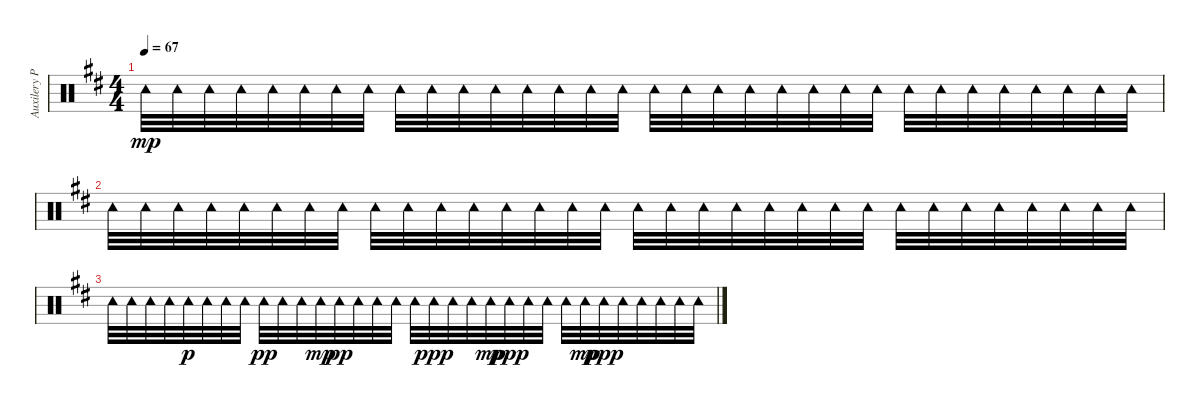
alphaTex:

\track ("Auxilery Percussion" "Auxilery P") {instrument percussion}
\staff {score}
\articulation defaults
\ts (4 4)
\tempo 67
\clef neutral
\ks bminor "Tambourine (hit)".32{dy mp} "Tambourine (hit)".32 "Tambourine (hit)".32 "Tambourine (hit)".32 "Tambourine (hit)".32 "Tambourine (hit)".32 "Tambourine (hit)".32 "Tambourine (hit)".32 "Tambourine (hit)".32 "Tambourine (hit)".32 "Tambourine (hit)".32 "Tambourine (hit)".32 "Tambourine (hit)".32 "Tambourine (hit)".32 "Tambourine (hit)".32 "Tambourine (hit)".32 "Tambourine (hit)".32 "Tambourine (hit)".32 "Tambourine (hit)".32 "Tambourine (hit)".32 "Tambourine (hit)".32 "Tambourine (hit)".32 "Tambourine (hit)".32 "Tambourine (hit)".32 "Tambourine (hit)".32 "Tambourine (hit)".32 "Tambourine (hit)".32 "Tambourine (hit)".32 "Tambourine (hit)".32 "Tambourine (hit)".32 "Tambourine (hit)".32 "Tambourine (hit)".32
|
"Tambourine (hit)".32 "Tambourine (hit)".32 "Tambourine (hit)".32 "Tambourine (hit)".32 "Tambourine (hit)".32 "Tambourine (hit)".32 "Tambourine (hit)".32 "Tambourine (hit)".32 "Tambourine (hit)".32 "Tambourine (hit)".32 "Tambourine (hit)".32 "Tambourine (hit)".32 "Tambourine (hit)".32 "Tambourine (hit)".32 "Tambourine (hit)".32 "Tambourine (hit)".32 "Tambourine (hit)".32 "Tambourine (hit)".32 "Tambourine (hit)".32 "Tambourine (hit)".32 "Tambourine (hit)".32 "Tambourine (hit)".32 "Tambourine (hit)".32 "Tambourine (hit)".32 "Tambourine (hit)".32 "Tambourine (hit)".32 "Tambourine (hit)".32 "Tambourine (hit)".32 "Tambourine (hit)".32 "Tambourine (hit)".32 "Tambourine (hit)".32 "Tambourine (hit)".32 |
"Tambourine (hit)".32 "Tambourine (hit)".32 "Tambourine (hit)".32 "Tambourine (hit)".32 "Tambourine (hit)".32{dy p} "Tambourine (hit)".32 "Tambourine (hit)".32 "Tambourine (hit)".32 "Tambourine (hit)".32{dy pp} "Tambourine (hit)".32 "Tambourine (hit)".32 "Tambourine (hit)".32{dy mp} "Tambourine (hit)".32{dy pp} "Tambourine (hit)".32 "Tambourine (hit)".32 "Tambourine (hit)".32 "Tambourine (hit)".32 "Tambourine (hit)".32{dy ppp} "Tambourine (hit)".32 "Tambourine (hit)".32 "Tambourine (hit)".32{dy mp} "Tambourine (hit)".32{dy ppp} "Tambourine (hit)".32 "Tambourine (hit)".32 "Tambourine (hit)".32 "Tambourine (hit)".32{dy mp} "Tambourine (hit)".32{dy ppp} "Tambourine (hit)".32 "Tambourine (hit)".32 "Tambourine (hit)".32 "Tambourine (hit)".32 "Tambourine (hit)".32
